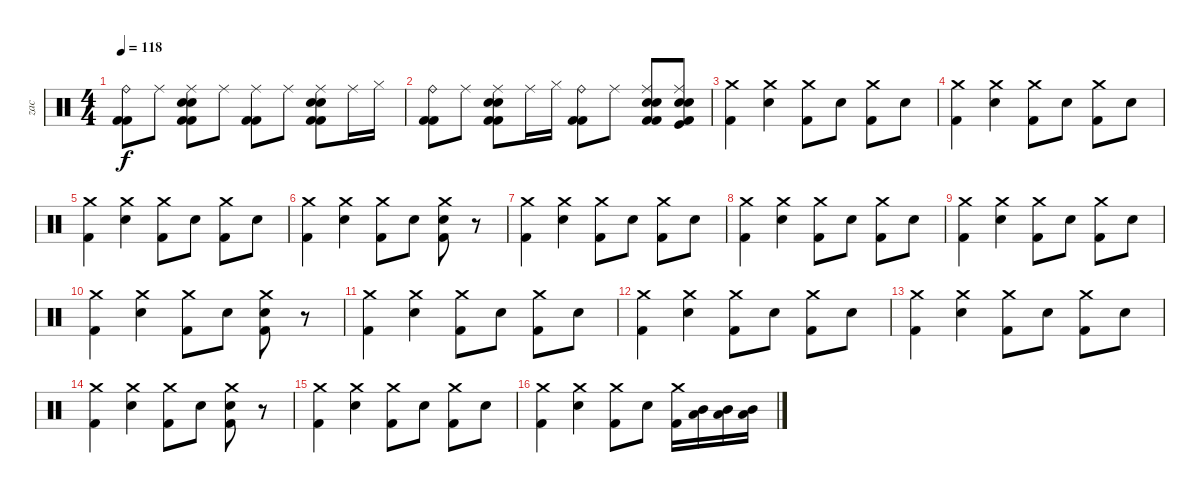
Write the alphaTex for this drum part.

\track ("zac" "zac") {instrument percussion}
\staff {score}
\articulation defaults
\ts (4 4)
\tempo 118
\clef neutral
\ks c
("Ride (bell)" "Kick (hit) 2" "Kick (hit) 2").8{dy f} "Ride (middle)".8 ("Electric Snare (hit)" "Ride (middle)" "Electric Snare (hit)" "Kick (hit) 2" "Kick (hit) 2").8 "Ride (middle)".8 ("Ride (middle)" "Kick (hit) 2" "Kick (hit) 2").8 "Ride (middle)".8 ("Electric Snare (hit)" "Ride (middle)" "Electric Snare (hit)" "Kick (hit) 2" "Kick (hit) 2").8 "Ride (middle)".16 "Hi-Hat (closed)".16 |
("Ride (bell)" "Kick (hit) 2" "Kick (hit) 2").8 "Ride (middle)".8 ("Electric Snare (hit)" "Ride (middle)" "Electric Snare (hit)" "Kick (hit) 2" "Kick (hit) 2").8 "Ride (middle)".16 "Hi-Hat (closed)".16 ("Ride (bell)" "Kick (hit) 2" "Kick (hit) 2").8 "Ride (middle)".8 ("Electric Snare (hit)" "Ride (middle)" "Electric Snare (hit)" "Kick (hit) 2" "Kick (hit) 2").8 ("Electric Snare (hit)" "Ride (middle)" "Electric Snare (hit)" "Kick (hit)" "Kick (hit) 2").8 |
("Crash medium (hit)" "Kick (hit) 2").4 ("Crash medium (hit)" "Electric Snare (hit)").4 ("Crash medium (hit)" "Kick (hit) 2").8 "Electric Snare (hit)".8 ("Crash medium (hit)" "Kick (hit) 2").8 "Electric Snare (hit)".8 |
("Crash medium (hit)" "Kick (hit) 2").4 ("Crash medium (hit)" "Electric Snare (hit)").4 ("Crash medium (hit)" "Kick (hit) 2").8 "Electric Snare (hit)".8 ("Crash medium (hit)" "Kick (hit) 2").8 "Electric Snare (hit)".8 |
("Crash medium (hit)" "Kick (hit) 2").4 ("Crash medium (hit)" "Electric Snare (hit)").4 ("Crash medium (hit)" "Kick (hit) 2").8 "Electric Snare (hit)".8 ("Crash medium (hit)" "Kick (hit) 2").8 "Electric Snare (hit)".8 |
("Crash medium (hit)" "Kick (hit) 2").4 ("Crash medium (hit)" "Electric Snare (hit)").4 ("Crash medium (hit)" "Kick (hit) 2").8 "Electric Snare (hit)".8 ("Crash medium (hit)" "Electric Snare (hit)" "Kick (hit) 2").8 r.8 |
("Crash medium (hit)" "Kick (hit) 2").4 ("Crash medium (hit)" "Electric Snare (hit)").4 ("Crash medium (hit)" "Kick (hit) 2").8 "Electric Snare (hit)".8 ("Crash medium (hit)" "Kick (hit) 2").8 "Electric Snare (hit)".8 |
("Crash medium (hit)" "Kick (hit) 2").4 ("Crash medium (hit)" "Electric Snare (hit)").4 ("Crash medium (hit)" "Kick (hit) 2").8 "Electric Snare (hit)".8 ("Crash medium (hit)" "Kick (hit) 2").8 "Electric Snare (hit)".8 |
("Crash medium (hit)" "Kick (hit) 2").4 ("Crash medium (hit)" "Electric Snare (hit)").4 ("Crash medium (hit)" "Kick (hit) 2").8 "Electric Snare (hit)".8 ("Crash medium (hit)" "Kick (hit) 2").8 "Electric Snare (hit)".8 |
("Crash medium (hit)" "Kick (hit) 2").4 ("Crash medium (hit)" "Electric Snare (hit)").4 ("Crash medium (hit)" "Kick (hit) 2").8 "Electric Snare (hit)".8 ("Crash medium (hit)" "Electric Snare (hit)" "Kick (hit) 2").8 r.8 |
("Crash medium (hit)" "Kick (hit) 2").4 ("Crash medium (hit)" "Electric Snare (hit)").4 ("Crash medium (hit)" "Kick (hit) 2").8 "Electric Snare (hit)".8 ("Crash medium (hit)" "Kick (hit) 2").8 "Electric Snare (hit)".8 |
("Crash medium (hit)" "Kick (hit) 2").4 ("Crash medium (hit)" "Electric Snare (hit)").4 ("Crash medium (hit)" "Kick (hit) 2").8 "Electric Snare (hit)".8 ("Crash medium (hit)" "Kick (hit) 2").8 "Electric Snare (hit)".8 |
("Crash medium (hit)" "Kick (hit) 2").4 ("Crash medium (hit)" "Electric Snare (hit)").4 ("Crash medium (hit)" "Kick (hit) 2").8 "Electric Snare (hit)".8 ("Crash medium (hit)" "Kick (hit) 2").8 "Electric Snare (hit)".8 |
("Crash medium (hit)" "Kick (hit) 2").4 ("Crash medium (hit)" "Electric Snare (hit)").4 ("Crash medium (hit)" "Kick (hit) 2").8 "Electric Snare (hit)".8 ("Crash medium (hit)" "Electric Snare (hit)" "Kick (hit) 2").8 r.8 |
("Crash medium (hit)" "Kick (hit) 2").4 ("Crash medium (hit)" "Electric Snare (hit)").4 ("Crash medium (hit)" "Kick (hit) 2").8 "Electric Snare (hit)".8 ("Crash medium (hit)" "Kick (hit) 2").8 "Electric Snare (hit)".8 |
("Crash medium (hit)" "Kick (hit) 2").4 ("Crash medium (hit)" "Electric Snare (hit)").4 ("Crash medium (hit)" "Kick (hit) 2").8 "Electric Snare (hit)".8 ("Crash medium (hit)" "Kick (hit) 2").16 ("Mid Tom (hit)" "Low Tom (hit)").16 ("Mid Tom (hit)" "Low Tom (hit)").16 ("Mid Tom (hit)" "Low Tom (hit)").16
